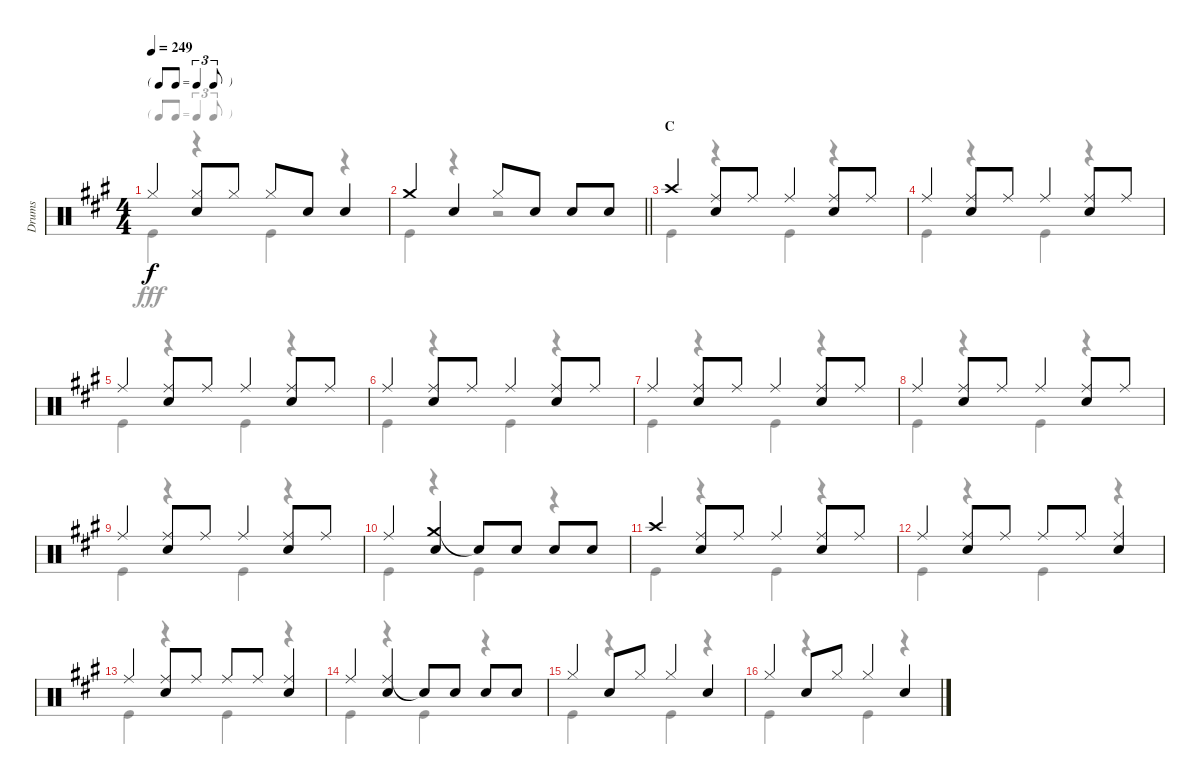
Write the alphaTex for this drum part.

\track ("Drums" "Drums") {instrument percussion}
\staff {score}
\articulation defaults
\voice
\ts (4 4)
\tf triplet8th
\tempo 249
\clef neutral
\ks a "Hi-Hat (closed)".4{dy f}
("Hi-Hat (closed)" "Snare (hit) 2").8 "Hi-Hat (closed)".8 "Hi-Hat (closed)".8 "Snare (hit) 2".8 "Snare (hit) 2".4 |
\barLineRight lightlight "Crash medium (hit)".4 "Snare (hit) 2".4 "Hi-Hat (closed)".8 "Snare (hit) 2".8 "Snare (hit) 2".8 "Snare (hit) 2".8
|
\section ("" "C")
"Crash high (hit)".4 ("Ride (middle)" "Snare (hit) 2").8 "Ride (middle)".8 "Ride (middle)".4 ("Ride (middle)" "Snare (hit) 2").8 "Ride (middle)".8 |
"Ride (middle)".4 ("Ride (middle)" "Snare (hit) 2").8 "Ride (middle)".8 "Ride (middle)".4 ("Ride (middle)" "Snare (hit) 2").8 "Ride (middle)".8 |
"Ride (middle)".4 ("Ride (middle)" "Snare (hit) 2").8 "Ride (middle)".8 "Ride (middle)".4 ("Ride (middle)" "Snare (hit) 2").8 "Ride (middle)".8 |
"Ride (middle)".4 ("Ride (middle)" "Snare (hit) 2").8 "Ride (middle)".8 "Ride (middle)".4 ("Ride (middle)" "Snare (hit) 2").8 "Ride (middle)".8 |
"Ride (middle)".4 ("Ride (middle)" "Snare (hit) 2").8 "Ride (middle)".8 "Ride (middle)".4 ("Ride (middle)" "Snare (hit) 2").8 "Ride (middle)".8 |
"Ride (middle)".4 ("Ride (middle)" "Snare (hit) 2").8 "Ride (middle)".8 "Ride (middle)".4 ("Ride (middle)" "Snare (hit) 2").8 "Ride (middle)".8 |
"Ride (middle)".4 ("Ride (middle)" "Snare (hit) 2").8 "Ride (middle)".8 "Ride (middle)".4 ("Ride (middle)" "Snare (hit) 2").8 "Ride (middle)".8 |
"Ride (middle)".4 ("Crash medium (hit)" "Snare (hit) 2").4 "Snare (hit)"{t}.8 "Snare (hit) 2".8 "Snare (hit) 2".8 "Snare (hit) 2".8 |
"Crash high (hit)".4 ("Ride (middle)" "Snare (hit) 2").8 "Ride (middle)".8 "Ride (middle)".4 ("Ride (middle)" "Snare (hit) 2").8 "Ride (middle)".8 |
"Ride (middle)".4 ("Ride (middle)" "Snare (hit) 2").8 "Ride (middle)".8 "Ride (middle)".8 "Ride (middle)".8 ("Ride (middle)" "Snare (hit) 2").4 |
"Ride (middle)".4 ("Ride (middle)" "Snare (hit) 2").8 "Ride (middle)".8 "Ride (middle)".8 "Ride (middle)".8 ("Ride (middle)" "Snare (hit) 2").4 |
"Ride (middle)".4 ("Ride (middle)" "Snare (hit) 2").4 "Snare (hit)"{t}.8 "Snare (hit) 2".8 "Snare (hit) 2".8 "Snare (hit) 2".8 |
"Hi-Hat (closed)".4 "Snare (hit) 2".8 "Hi-Hat (closed)".8 "Hi-Hat (closed)".4 "Snare (hit) 2".4 |
"Hi-Hat (closed)".4 "Snare (hit) 2".8 "Hi-Hat (closed)".8 "Hi-Hat (closed)".4 "Snare (hit) 2".4
\voice
\clef neutral
\ottava regular
\simile none
\ks a "Kick (hit)".4{dy fff}
r.4 "Kick (hit)".4 r.4 |
\barLineRight lightlight "Kick (hit)".4
r.4 r.2 |
"Kick (hit)".4 r.4 "Kick (hit)".4 r.4 |
"Kick (hit)".4 r.4 "Kick (hit)".4 r.4 |
"Kick (hit)".4 r.4 "Kick (hit)".4 r.4 |
"Kick (hit)".4 r.4 "Kick (hit)".4 r.4 |
"Kick (hit)".4 r.4 "Kick (hit)".4 r.4 |
"Kick (hit)".4 r.4 "Kick (hit)".4 r.4 |
"Kick (hit)".4 r.4 "Kick (hit)".4 r.4 |
"Kick (hit)".4 r.4 "Kick (hit)".4 r.4 |
"Kick (hit)".4 r.4 "Kick (hit)".4 r.4 |
"Kick (hit)".4 r.4 "Kick (hit)".4 r.4 |
"Kick (hit)".4 r.4 "Kick (hit)".4 r.4 |
"Kick (hit)".4 r.4 "Kick (hit)".4 r.4 |
"Kick (hit)".4 r.4 "Kick (hit)".4 r.4 |
"Kick (hit)".4 r.4 "Kick (hit)".4 r.4
